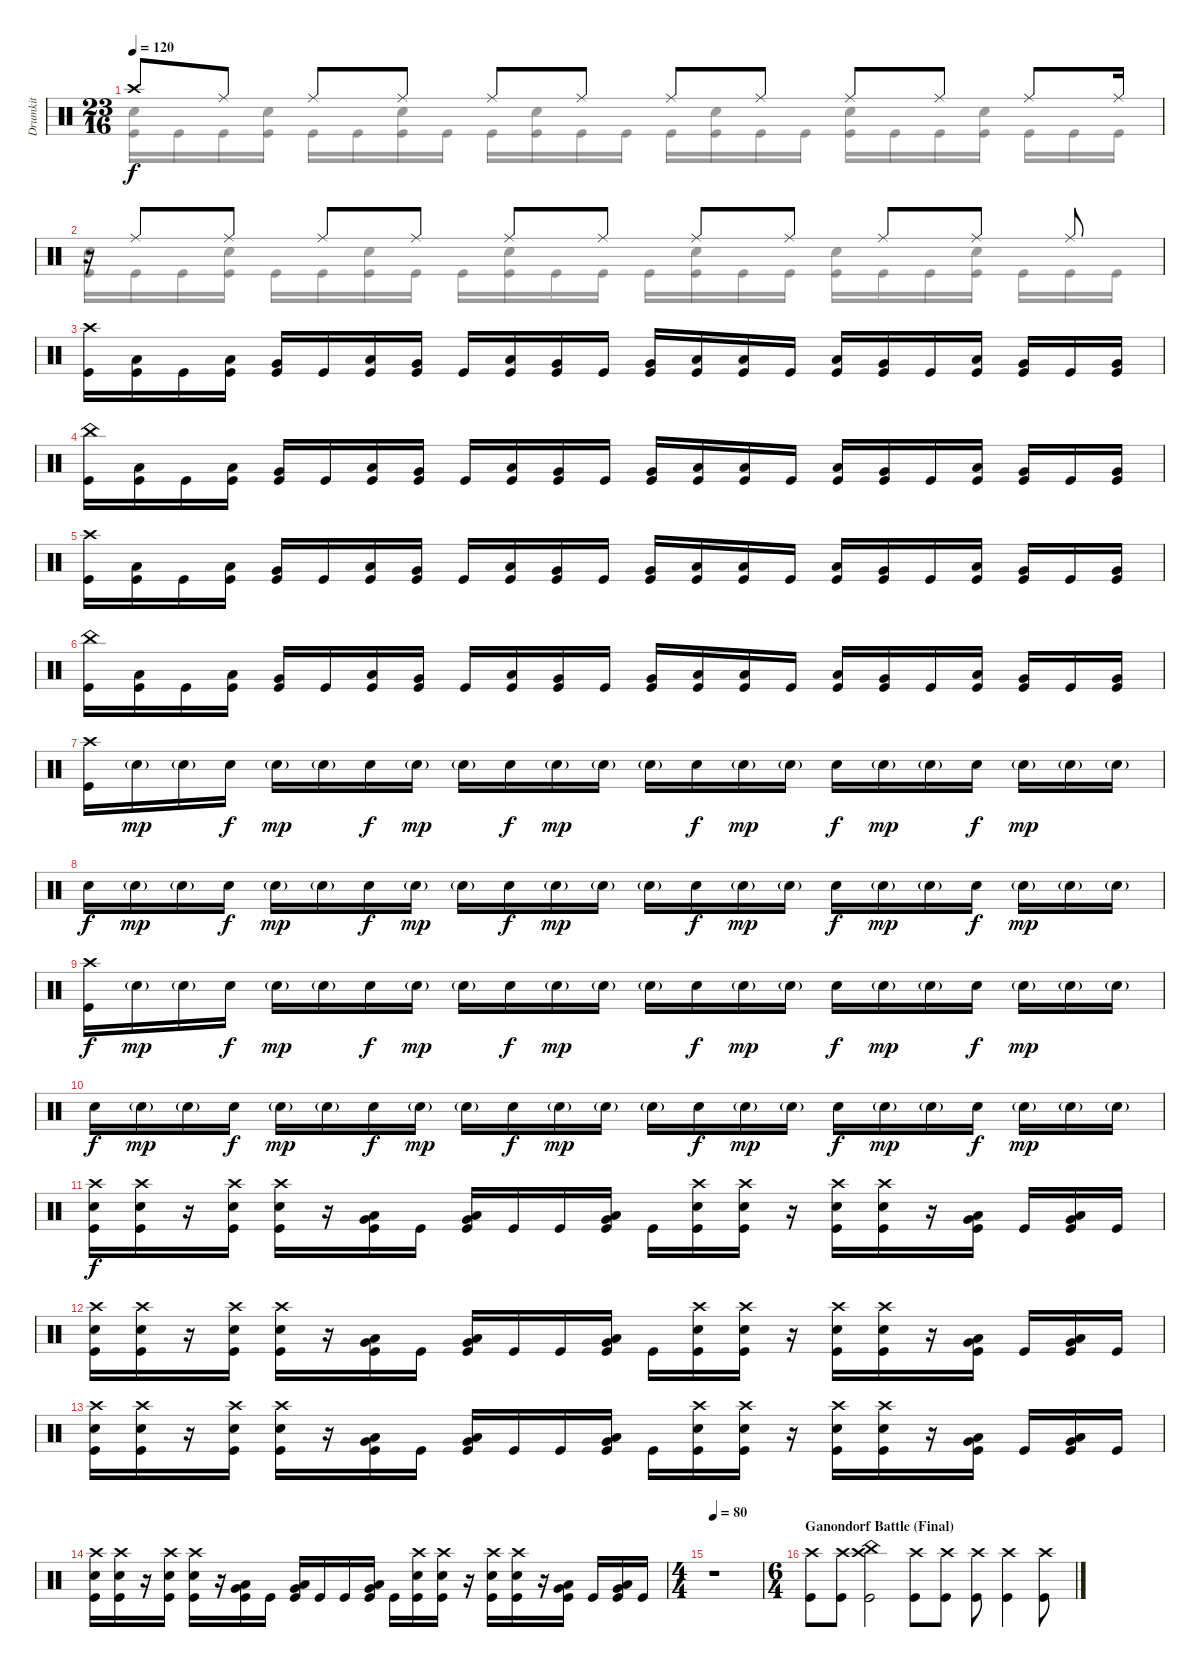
\track ("Drumkit" "Drumkit") {instrument percussion}
\staff {score}
\articulation defaults
\voice
\ts (23 16)
\tempo 120
\clef neutral
\ks c "Crash high (hit)".8{dy f} "Ride (middle)".8 "Ride (middle)".8 "Ride (middle)".8 "Ride (middle)".8 "Ride (middle)".8 "Ride (middle)".8 "Ride (middle)".8 "Ride (middle)".8 "Ride (middle)".8 "Ride (middle)".8 "Ride (middle)".16
|
r.16 "Ride (middle)".8 "Ride (middle)".8 "Ride (middle)".8 "Ride (middle)".8 "Ride (middle)".8 "Ride (middle)".8 "Ride (middle)".8 "Ride (middle)".8 "Ride (middle)".8 "Ride (middle)".8 "Ride (middle)".8 |
("Kick (hit)" "Crash high (hit)").16 ("Kick (hit)" "Low Tom (hit)").16 "Kick (hit)".16 ("Kick (hit)" "Low Floor Tom (hit)").16 ("Kick (hit)" "Very Low Tom (hit)").16 "Kick (hit)".16 ("Kick (hit)" "Low Floor Tom (hit)").16 ("Kick (hit)" "Very Low Tom (hit)").16 "Kick (hit)".16 ("Kick (hit)" "Low Floor Tom (hit)").16 ("Kick (hit)" "Very Low Tom (hit)").16 "Kick (hit)".16 ("Kick (hit)" "Very Low Tom (hit)").16 ("Kick (hit)" "Low Tom (hit)").16 ("Kick (hit)" "Low Tom (hit)").16 "Kick (hit)".16 ("Kick (hit)" "Low Floor Tom (hit)").16 ("Kick (hit)" "Very Low Tom (hit)").16 "Kick (hit)".16 ("Kick (hit)" "Low Floor Tom (hit)").16 ("Kick (hit)" "Very Low Tom (hit)").16 "Kick (hit)".16 ("Kick (hit)" "Very Low Tom (hit)").16 |
("Kick (hit)" "China (hit)").16 ("Kick (hit)" "Low Tom (hit)").16 "Kick (hit)".16 ("Kick (hit)" "Low Floor Tom (hit)").16 ("Kick (hit)" "Very Low Tom (hit)").16 "Kick (hit)".16 ("Kick (hit)" "Low Floor Tom (hit)").16 ("Kick (hit)" "Very Low Tom (hit)").16 "Kick (hit)".16 ("Kick (hit)" "Low Floor Tom (hit)").16 ("Kick (hit)" "Very Low Tom (hit)").16 "Kick (hit)".16 ("Kick (hit)" "Very Low Tom (hit)").16 ("Kick (hit)" "Low Tom (hit)").16 ("Kick (hit)" "Low Tom (hit)").16 "Kick (hit)".16 ("Kick (hit)" "Low Floor Tom (hit)").16 ("Kick (hit)" "Very Low Tom (hit)").16 "Kick (hit)".16 ("Kick (hit)" "Low Floor Tom (hit)").16 ("Kick (hit)" "Very Low Tom (hit)").16 "Kick (hit)".16 ("Kick (hit)" "Very Low Tom (hit)").16 |
("Kick (hit)" "Crash high (hit)").16 ("Kick (hit)" "Low Tom (hit)").16 "Kick (hit)".16 ("Kick (hit)" "Low Floor Tom (hit)").16 ("Kick (hit)" "Very Low Tom (hit)").16 "Kick (hit)".16 ("Kick (hit)" "Low Floor Tom (hit)").16 ("Kick (hit)" "Very Low Tom (hit)").16 "Kick (hit)".16 ("Kick (hit)" "Low Floor Tom (hit)").16 ("Kick (hit)" "Very Low Tom (hit)").16 "Kick (hit)".16 ("Kick (hit)" "Very Low Tom (hit)").16 ("Kick (hit)" "Low Tom (hit)").16 ("Kick (hit)" "Low Tom (hit)").16 "Kick (hit)".16 ("Kick (hit)" "Low Floor Tom (hit)").16 ("Kick (hit)" "Very Low Tom (hit)").16 "Kick (hit)".16 ("Kick (hit)" "Low Floor Tom (hit)").16 ("Kick (hit)" "Very Low Tom (hit)").16 "Kick (hit)".16 ("Kick (hit)" "Very Low Tom (hit)").16 |
("Kick (hit)" "China (hit)").16 ("Kick (hit)" "Low Tom (hit)").16 "Kick (hit)".16 ("Kick (hit)" "Low Floor Tom (hit)").16 ("Kick (hit)" "Very Low Tom (hit)").16 "Kick (hit)".16 ("Kick (hit)" "Low Floor Tom (hit)").16 ("Kick (hit)" "Very Low Tom (hit)").16 "Kick (hit)".16 ("Kick (hit)" "Low Floor Tom (hit)").16 ("Kick (hit)" "Very Low Tom (hit)").16 "Kick (hit)".16 ("Kick (hit)" "Very Low Tom (hit)").16 ("Kick (hit)" "Low Tom (hit)").16 ("Kick (hit)" "Low Tom (hit)").16 "Kick (hit)".16 ("Kick (hit)" "Low Floor Tom (hit)").16 ("Kick (hit)" "Very Low Tom (hit)").16 "Kick (hit)".16 ("Kick (hit)" "Low Floor Tom (hit)").16 ("Kick (hit)" "Very Low Tom (hit)").16 "Kick (hit)".16 ("Kick (hit)" "Very Low Tom (hit)").16 |
("Kick (hit)" "Crash high (hit)").16 "Snare (hit) 2"{g}.16{dy mp} "Snare (hit) 2"{g}.16 "Snare (hit) 2".16{dy f} "Snare (hit) 2"{g}.16{dy mp} "Snare (hit) 2"{g}.16 "Snare (hit) 2".16{dy f} "Snare (hit) 2"{g}.16{dy mp} "Snare (hit) 2"{g}.16 "Snare (hit) 2".16{dy f} "Snare (hit) 2"{g}.16{dy mp} "Snare (hit) 2"{g}.16 "Snare (hit) 2"{g}.16 "Snare (hit) 2".16{dy f} "Snare (hit) 2"{g}.16{dy mp} "Snare (hit) 2"{g}.16 "Snare (hit) 2".16{dy f} "Snare (hit) 2"{g}.16{dy mp} "Snare (hit) 2"{g}.16 "Snare (hit) 2".16{dy f} "Snare (hit) 2"{g}.16{dy mp} "Snare (hit) 2"{g}.16 "Snare (hit) 2"{g}.16 |
"Snare (hit) 2".16{dy f} "Snare (hit) 2"{g}.16{dy mp} "Snare (hit) 2"{g}.16 "Snare (hit) 2".16{dy f} "Snare (hit) 2"{g}.16{dy mp} "Snare (hit) 2"{g}.16 "Snare (hit) 2".16{dy f} "Snare (hit) 2"{g}.16{dy mp} "Snare (hit) 2"{g}.16 "Snare (hit) 2".16{dy f} "Snare (hit) 2"{g}.16{dy mp} "Snare (hit) 2"{g}.16 "Snare (hit) 2"{g}.16 "Snare (hit) 2".16{dy f} "Snare (hit) 2"{g}.16{dy mp} "Snare (hit) 2"{g}.16 "Snare (hit) 2".16{dy f} "Snare (hit) 2"{g}.16{dy mp} "Snare (hit) 2"{g}.16 "Snare (hit) 2".16{dy f} "Snare (hit) 2"{g}.16{dy mp} "Snare (hit) 2"{g}.16 "Snare (hit) 2"{g}.16 |
("Crash high (hit)" "Kick (hit)").16{dy f} "Snare (hit) 2"{g}.16{dy mp} "Snare (hit) 2"{g}.16 "Snare (hit) 2".16{dy f} "Snare (hit) 2"{g}.16{dy mp} "Snare (hit) 2"{g}.16 "Snare (hit) 2".16{dy f} "Snare (hit) 2"{g}.16{dy mp} "Snare (hit) 2"{g}.16 "Snare (hit) 2".16{dy f} "Snare (hit) 2"{g}.16{dy mp} "Snare (hit) 2"{g}.16 "Snare (hit) 2"{g}.16 "Snare (hit) 2".16{dy f} "Snare (hit) 2"{g}.16{dy mp} "Snare (hit) 2"{g}.16 "Snare (hit) 2".16{dy f} "Snare (hit) 2"{g}.16{dy mp} "Snare (hit) 2"{g}.16 "Snare (hit) 2".16{dy f} "Snare (hit) 2"{g}.16{dy mp} "Snare (hit) 2"{g}.16 "Snare (hit) 2"{g}.16 |
"Snare (hit) 2".16{dy f} "Snare (hit) 2"{g}.16{dy mp} "Snare (hit) 2"{g}.16 "Snare (hit) 2".16{dy f} "Snare (hit) 2"{g}.16{dy mp} "Snare (hit) 2"{g}.16 "Snare (hit) 2".16{dy f} "Snare (hit) 2"{g}.16{dy mp} "Snare (hit) 2"{g}.16 "Snare (hit) 2".16{dy f} "Snare (hit) 2"{g}.16{dy mp} "Snare (hit) 2"{g}.16 "Snare (hit) 2"{g}.16 "Snare (hit) 2".16{dy f} "Snare (hit) 2"{g}.16{dy mp} "Snare (hit) 2"{g}.16 "Snare (hit) 2".16{dy f} "Snare (hit) 2"{g}.16{dy mp} "Snare (hit) 2"{g}.16 "Snare (hit) 2".16{dy f} "Snare (hit) 2"{g}.16{dy mp} "Snare (hit) 2"{g}.16 "Snare (hit) 2"{g}.16 |
("Kick (hit)" "Snare (hit) 2" "Crash high (hit)").16{dy f} ("Kick (hit)" "Snare (hit) 2" "Crash high (hit)").16 r.16 ("Kick (hit)" "Snare (hit) 2" "Crash high (hit)").16 ("Kick (hit)" "Snare (hit) 2" "Crash high (hit)").16 r.16 ("Kick (hit)" "Very Low Tom (hit)" "Low Tom (hit)").16 "Kick (hit)".16 ("Kick (hit)" "Very Low Tom (hit)" "Low Floor Tom (hit)").16 "Kick (hit)".16 "Kick (hit)".16 ("Kick (hit)" "Very Low Tom (hit)" "Low Floor Tom (hit)").16 "Kick (hit)".16 ("Kick (hit)" "Snare (hit) 2" "Crash high (hit)").16 ("Kick (hit)" "Snare (hit) 2" "Crash high (hit)").16 r.16 ("Kick (hit)" "Snare (hit) 2" "Crash high (hit)").16 ("Kick (hit)" "Snare (hit) 2" "Crash high (hit)").16 r.16 ("Kick (hit)" "Low Tom (hit)" "Very Low Tom (hit)").16 "Kick (hit)".16 ("Kick (hit)" "Very Low Tom (hit)" "Low Floor Tom (hit)").16 "Kick (hit)".16 |
("Kick (hit)" "Snare (hit) 2" "Crash high (hit)").16 ("Kick (hit)" "Snare (hit) 2" "Crash high (hit)").16 r.16 ("Kick (hit)" "Snare (hit) 2" "Crash high (hit)").16 ("Kick (hit)" "Snare (hit) 2" "Crash high (hit)").16 r.16 ("Kick (hit)" "Very Low Tom (hit)" "Low Tom (hit)").16 "Kick (hit)".16 ("Kick (hit)" "Very Low Tom (hit)" "Low Floor Tom (hit)").16 "Kick (hit)".16 "Kick (hit)".16 ("Kick (hit)" "Very Low Tom (hit)" "Low Floor Tom (hit)").16 "Kick (hit)".16 ("Kick (hit)" "Snare (hit) 2" "Crash high (hit)").16 ("Kick (hit)" "Snare (hit) 2" "Crash high (hit)").16 r.16 ("Kick (hit)" "Snare (hit) 2" "Crash high (hit)").16 ("Kick (hit)" "Snare (hit) 2" "Crash high (hit)").16 r.16 ("Kick (hit)" "Low Tom (hit)" "Very Low Tom (hit)").16 "Kick (hit)".16 ("Kick (hit)" "Very Low Tom (hit)" "Low Floor Tom (hit)").16 "Kick (hit)".16 |
("Kick (hit)" "Snare (hit) 2" "Crash high (hit)").16 ("Kick (hit)" "Snare (hit) 2" "Crash high (hit)").16 r.16 ("Kick (hit)" "Snare (hit) 2" "Crash high (hit)").16 ("Kick (hit)" "Snare (hit) 2" "Crash high (hit)").16 r.16 ("Kick (hit)" "Very Low Tom (hit)" "Low Tom (hit)").16 "Kick (hit)".16 ("Kick (hit)" "Very Low Tom (hit)" "Low Floor Tom (hit)").16 "Kick (hit)".16 "Kick (hit)".16 ("Kick (hit)" "Very Low Tom (hit)" "Low Floor Tom (hit)").16 "Kick (hit)".16 ("Kick (hit)" "Snare (hit) 2" "Crash high (hit)").16 ("Kick (hit)" "Snare (hit) 2" "Crash high (hit)").16 r.16 ("Kick (hit)" "Snare (hit) 2" "Crash high (hit)").16 ("Kick (hit)" "Snare (hit) 2" "Crash high (hit)").16 r.16 ("Kick (hit)" "Low Tom (hit)" "Very Low Tom (hit)").16 "Kick (hit)".16 ("Kick (hit)" "Very Low Tom (hit)" "Low Floor Tom (hit)").16 "Kick (hit)".16 |
("Kick (hit)" "Snare (hit) 2" "Crash high (hit)").16 ("Kick (hit)" "Snare (hit) 2" "Crash high (hit)").16 r.16 ("Kick (hit)" "Snare (hit) 2" "Crash high (hit)").16 ("Kick (hit)" "Snare (hit) 2" "Crash high (hit)").16 r.16 ("Kick (hit)" "Very Low Tom (hit)" "Low Tom (hit)").16 "Kick (hit)".16 ("Kick (hit)" "Very Low Tom (hit)" "Low Floor Tom (hit)").16 "Kick (hit)".16 "Kick (hit)".16 ("Kick (hit)" "Very Low Tom (hit)" "Low Floor Tom (hit)").16 "Kick (hit)".16 ("Kick (hit)" "Snare (hit) 2" "Crash high (hit)").16 ("Kick (hit)" "Snare (hit) 2" "Crash high (hit)").16 r.16 ("Kick (hit)" "Snare (hit) 2" "Crash high (hit)").16 ("Kick (hit)" "Snare (hit) 2" "Crash high (hit)").16 r.16 ("Kick (hit)" "Low Tom (hit)" "Very Low Tom (hit)").16 "Kick (hit)".16 ("Kick (hit)" "Very Low Tom (hit)" "Low Floor Tom (hit)").16 "Kick (hit)".16 |
\ts (4 4)
\tempo 80
r.1 |
\ts (6 4)
\section ("" "Ganondorf Battle (Final)")
("Kick (hit)" "Crash high (hit)").8 ("Kick (hit)" "Crash high (hit)").8 ("Kick (hit)" "Crash high (hit)" "China (hit)").2 ("Kick (hit)" "Crash high (hit)").8 ("Kick (hit)" "Crash high (hit)").8 ("Kick (hit)" "Crash high (hit)").8 ("Kick (hit)" "Crash high (hit)").4 ("Kick (hit)" "Crash high (hit)").8
\voice
\clef neutral
\ottava regular
\simile none
\ks c
("Kick (hit)" "Snare (hit) 2").16{dy f} "Kick (hit)".16 "Kick (hit)".16 ("Kick (hit)" "Snare (hit) 2").16 "Kick (hit)".16 "Kick (hit)".16 ("Kick (hit)" "Snare (hit) 2").16 "Kick (hit)".16 "Kick (hit)".16 ("Kick (hit)" "Snare (hit) 2").16 "Kick (hit)".16 "Kick (hit)".16 "Kick (hit)".16 ("Kick (hit)" "Snare (hit) 2").16 "Kick (hit)".16 "Kick (hit)".16 ("Kick (hit)" "Snare (hit) 2").16 "Kick (hit)".16 "Kick (hit)".16 ("Kick (hit)" "Snare (hit) 2").16 "Kick (hit)".16 "Kick (hit)".16 "Kick (hit)".16 |
("Kick (hit)" "Snare (hit) 2").16 "Kick (hit)".16 "Kick (hit)".16 ("Kick (hit)" "Snare (hit) 2").16 "Kick (hit)".16 "Kick (hit)".16 ("Kick (hit)" "Snare (hit) 2").16 "Kick (hit)".16 "Kick (hit)".16 ("Kick (hit)" "Snare (hit) 2").16 "Kick (hit)".16 "Kick (hit)".16 "Kick (hit)".16 ("Kick (hit)" "Snare (hit) 2").16 "Kick (hit)".16 "Kick (hit)".16 ("Kick (hit)" "Snare (hit) 2").16 "Kick (hit)".16 "Kick (hit)".16 ("Kick (hit)" "Snare (hit) 2").16 "Kick (hit)".16 "Kick (hit)".16 "Kick (hit)".16 |
|
|
|
|
|
|
|
|
|
|
|
|
|
